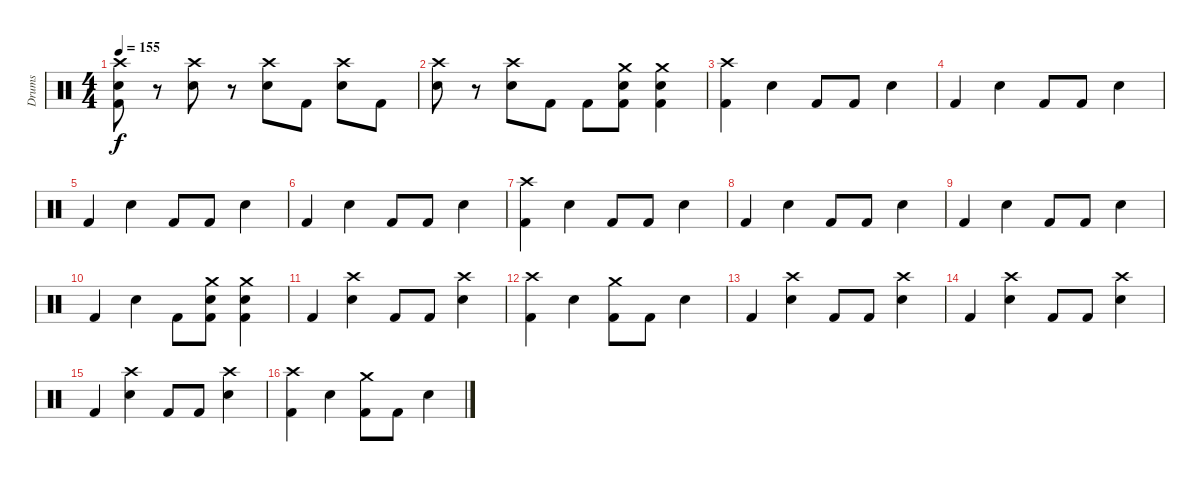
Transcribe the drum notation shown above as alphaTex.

\track ("Drums" "Drums") {instrument percussion}
\staff {score}
\articulation defaults
\ts (4 4)
\tempo 155
\clef neutral
\ks c
("Crash high (hit)" "Snare (hit) 2" "Kick (hit) 2").8{dy f} r.8 ("Crash high (hit)" "Snare (hit) 2").8 r.8 ("Crash high (hit)" "Snare (hit) 2").8 "Kick (hit) 2".8 ("Crash high (hit)" "Snare (hit) 2").8 "Kick (hit) 2".8 |
("Snare (hit) 2" "Crash high (hit)").8 r.8 ("Snare (hit) 2" "Crash high (hit)").8 "Kick (hit) 2".8 "Kick (hit) 2".8 ("Crash medium (hit)" "Snare (hit) 2" "Kick (hit) 2").8 ("Crash medium (hit)" "Snare (hit) 2" "Kick (hit) 2").4 |
("Crash high (hit)" "Kick (hit) 2").4 "Snare (hit) 2".4 "Kick (hit) 2".8 "Kick (hit) 2".8 "Snare (hit) 2".4 |
"Kick (hit) 2".4 "Snare (hit) 2".4 "Kick (hit) 2".8 "Kick (hit) 2".8 "Snare (hit) 2".4 |
"Kick (hit) 2".4 "Snare (hit) 2".4 "Kick (hit) 2".8 "Kick (hit) 2".8 "Snare (hit) 2".4 |
"Kick (hit) 2".4 "Snare (hit) 2".4 "Kick (hit) 2".8 "Kick (hit) 2".8 "Snare (hit) 2".4 |
("Crash high (hit)" "Kick (hit) 2").4 "Snare (hit) 2".4 "Kick (hit) 2".8 "Kick (hit) 2".8 "Snare (hit) 2".4 |
"Kick (hit) 2".4 "Snare (hit) 2".4 "Kick (hit) 2".8 "Kick (hit) 2".8 "Snare (hit) 2".4 |
"Kick (hit) 2".4 "Snare (hit) 2".4 "Kick (hit) 2".8 "Kick (hit) 2".8 "Snare (hit) 2".4 |
"Kick (hit) 2".4 "Snare (hit) 2".4 "Kick (hit) 2".8 ("Crash medium (hit)" "Snare (hit) 2" "Kick (hit) 2").8 ("Crash medium (hit)" "Snare (hit) 2" "Kick (hit) 2").4 |
"Kick (hit) 2".4 ("Crash high (hit)" "Snare (hit) 2").4 "Kick (hit) 2".8 "Kick (hit) 2".8 ("Crash high (hit)" "Snare (hit) 2").4 |
("Crash high (hit)" "Kick (hit) 2").4 "Snare (hit) 2".4 ("Crash medium (hit)" "Kick (hit) 2").8 "Kick (hit) 2".8 "Snare (hit) 2".4 |
"Kick (hit) 2".4 ("Crash high (hit)" "Snare (hit) 2").4 "Kick (hit) 2".8 "Kick (hit) 2".8 ("Crash high (hit)" "Snare (hit) 2").4 |
"Kick (hit) 2".4 ("Crash high (hit)" "Snare (hit) 2").4 "Kick (hit) 2".8 "Kick (hit) 2".8 ("Crash high (hit)" "Snare (hit) 2").4 |
"Kick (hit) 2".4 ("Crash high (hit)" "Snare (hit) 2").4 "Kick (hit) 2".8 "Kick (hit) 2".8 ("Crash high (hit)" "Snare (hit) 2").4 |
("Crash high (hit)" "Kick (hit) 2").4 "Snare (hit) 2".4 ("Crash medium (hit)" "Kick (hit) 2").8 "Kick (hit) 2".8 "Snare (hit) 2".4
